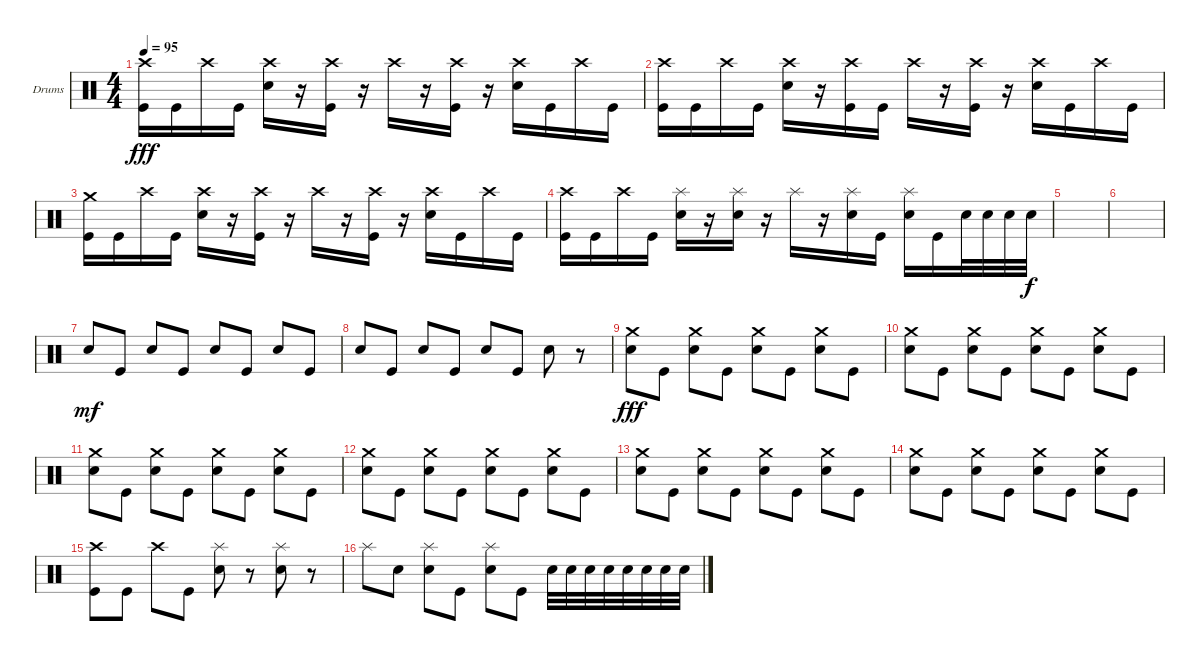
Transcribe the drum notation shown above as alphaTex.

\bracketExtendMode groupsimilarinstruments
\firstSystemTrackNameOrientation horizontal
\otherSystemsTrackNameOrientation horizontal
\track ("Drumkit" "Drums") {instrument percussion}
\staff {score}
\articulation defaults
\ts (4 4)
\tempo 95
\clef neutral
\ks c
("Crash high (hit)" "Kick (hit)").16{dy fff} "Kick (hit)".16 "Crash high (hit)".16 "Kick (hit)".16 ("Crash high (hit)" "Snare (hit) 2").16 r.16 ("Crash high (hit)" "Kick (hit)").16 r.16 "Crash high (hit)".16 r.16 ("Crash high (hit)" "Kick (hit)").16 r.16 ("Crash high (hit)" "Snare (hit) 2").16 "Kick (hit)".16 "Crash high (hit)".16 "Kick (hit)".16 |
("Crash high (hit)" "Kick (hit)").16 "Kick (hit)".16 "Crash high (hit)".16 "Kick (hit)".16 ("Crash high (hit)" "Snare (hit) 2").16 r.16 ("Crash high (hit)" "Kick (hit)").16 "Kick (hit)".16 "Crash high (hit)".16 r.16 ("Crash high (hit)" "Kick (hit)").16 r.16 ("Crash high (hit)" "Snare (hit) 2").16 "Kick (hit)".16 "Crash high (hit)".16 "Kick (hit)".16 |
("Crash medium (hit)" "Kick (hit)").16 "Kick (hit)".16 "Crash high (hit)".16 "Kick (hit)".16 ("Crash high (hit)" "Snare (hit) 2").16 r.16 ("Crash high (hit)" "Kick (hit)").16 r.16 "Crash high (hit)".16 r.16 ("Crash high (hit)" "Kick (hit)").16 r.16 ("Crash high (hit)" "Snare (hit) 2").16 "Kick (hit)".16 "Crash high (hit)".16 "Kick (hit)".16 |
("Crash high (hit)" "Kick (hit)").16 "Kick (hit)".16 "Crash high (hit)".16 "Kick (hit)".16 ("Splash (hit)" "Snare (hit) 2").16 r.16 ("Splash (hit)" "Snare (hit) 2").16 r.16 "Splash (hit)".16 r.16 ("Splash (hit)" "Snare (hit) 2").16 "Kick (hit)".16 ("Splash (hit)" "Snare (hit) 2").16 "Kick (hit)".16 "Snare (hit) 2".32 "Snare (hit) 2".32 "Snare (hit) 2".32 "Snare (hit) 2".32{dy f} |
|
|
"Snare (hit) 2".8{dy mf} "Kick (hit)".8 "Snare (hit) 2".8 "Kick (hit)".8 "Snare (hit) 2".8 "Kick (hit)".8 "Snare (hit) 2".8 "Kick (hit)".8 |
"Snare (hit) 2".8 "Kick (hit)".8 "Snare (hit) 2".8 "Kick (hit)".8 "Snare (hit) 2".8 "Kick (hit)".8 "Snare (hit) 2".8 r.8 |
("Crash medium (hit)" "Snare (hit) 2").8{dy fff} "Kick (hit)".8 ("Crash medium (hit)" "Snare (hit) 2").8 "Kick (hit)".8 ("Crash medium (hit)" "Snare (hit) 2").8 "Kick (hit)".8 ("Crash medium (hit)" "Snare (hit) 2").8 "Kick (hit)".8 |
("Crash medium (hit)" "Snare (hit) 2").8 "Kick (hit)".8 ("Crash medium (hit)" "Snare (hit) 2").8 "Kick (hit)".8 ("Crash medium (hit)" "Snare (hit) 2").8 "Kick (hit)".8 ("Crash medium (hit)" "Snare (hit) 2").8 "Kick (hit)".8 |
("Crash medium (hit)" "Snare (hit) 2").8 "Kick (hit)".8 ("Crash medium (hit)" "Snare (hit) 2").8 "Kick (hit)".8 ("Crash medium (hit)" "Snare (hit) 2").8 "Kick (hit)".8 ("Crash medium (hit)" "Snare (hit) 2").8 "Kick (hit)".8 |
("Crash medium (hit)" "Snare (hit) 2").8 "Kick (hit)".8 ("Crash medium (hit)" "Snare (hit) 2").8 "Kick (hit)".8 ("Crash medium (hit)" "Snare (hit) 2").8 "Kick (hit)".8 ("Crash medium (hit)" "Snare (hit) 2").8 "Kick (hit)".8 |
("Crash medium (hit)" "Snare (hit) 2").8 "Kick (hit)".8 ("Crash medium (hit)" "Snare (hit) 2").8 "Kick (hit)".8 ("Crash medium (hit)" "Snare (hit) 2").8 "Kick (hit)".8 ("Crash medium (hit)" "Snare (hit) 2").8 "Kick (hit)".8 |
("Crash medium (hit)" "Snare (hit) 2").8 "Kick (hit)".8 ("Crash medium (hit)" "Snare (hit) 2").8 "Kick (hit)".8 ("Crash medium (hit)" "Snare (hit) 2").8 "Kick (hit)".8 ("Crash medium (hit)" "Snare (hit) 2").8 "Kick (hit)".8 |
("Crash high (hit)" "Kick (hit)").8 "Kick (hit)".8 "Crash high (hit)".8 "Kick (hit)".8 ("Splash (hit)" "Snare (hit) 2").8 r.8 ("Splash (hit)" "Snare (hit) 2").8 r.8 |
"Splash (hit)".8 "Snare (hit) 2".8 ("Splash (hit)" "Snare (hit) 2").8 "Kick (hit)".8 ("Splash (hit)" "Snare (hit) 2").8 "Kick (hit)".8 "Snare (hit) 2".32 "Snare (hit) 2".32 "Snare (hit) 2".32 "Snare (hit) 2".32 "Snare (hit) 2".32 "Snare (hit) 2".32 "Snare (hit) 2".32 "Snare (hit) 2".32
